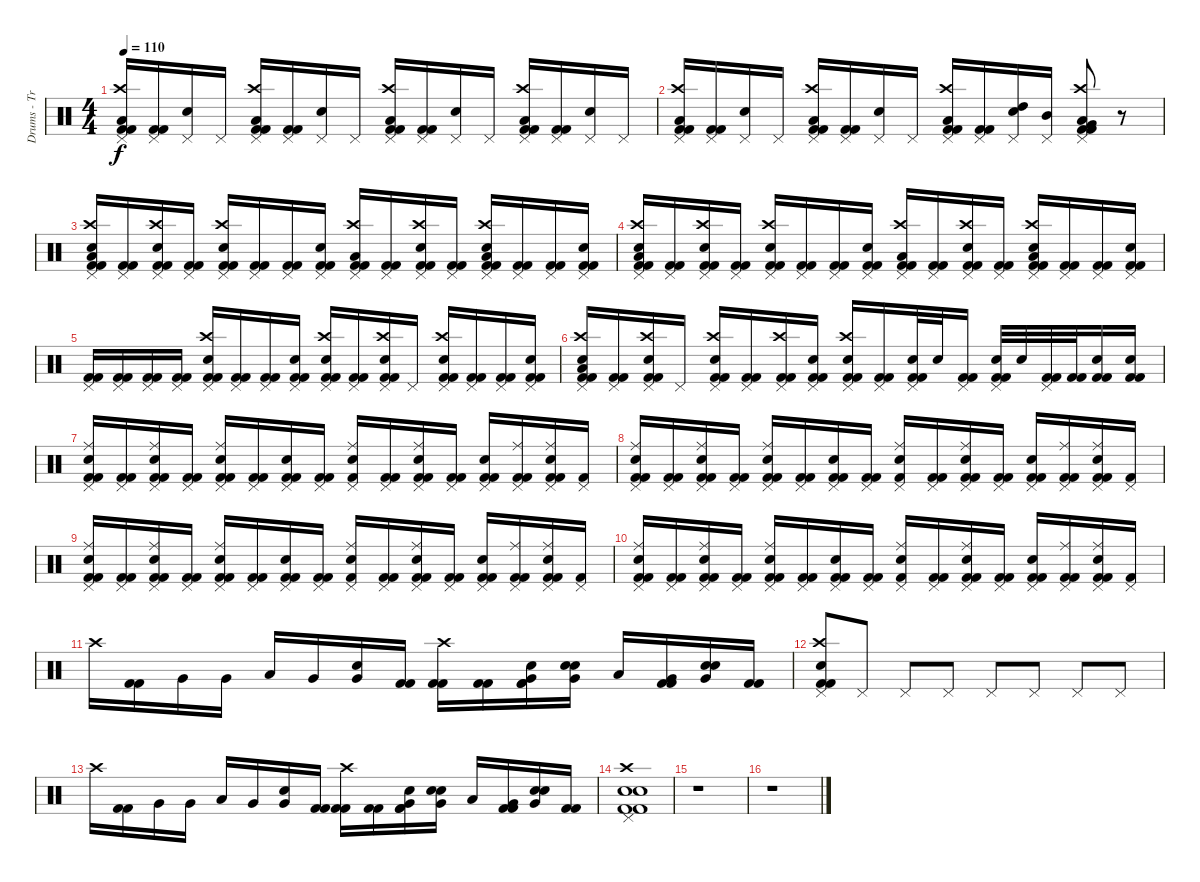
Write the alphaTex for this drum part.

\track ("Drums - Travis Barker" "Drums - Tr") {instrument percussion}
\staff {score}
\articulation defaults
\ts (4 4)
\tempo 110
\clef neutral
\ks c
("Pedal Hi-Hat (hit)" "Crash high (hit)" "Low Tom (hit)" "Kick (hit) 2" "Kick (hit) 2").16{dy f} ("Pedal Hi-Hat (hit)" "Kick (hit) 2" "Kick (hit) 2").16 ("Pedal Hi-Hat (hit)" "Electric Snare (hit)").16 "Pedal Hi-Hat (hit)".16 ("Pedal Hi-Hat (hit)" "Crash high (hit)" "Low Tom (hit)" "Kick (hit) 2" "Kick (hit) 2").16 ("Pedal Hi-Hat (hit)" "Kick (hit) 2" "Kick (hit) 2").16 ("Pedal Hi-Hat (hit)" "Electric Snare (hit)").16 "Pedal Hi-Hat (hit)".16 ("Pedal Hi-Hat (hit)" "Crash high (hit)" "Low Tom (hit)" "Kick (hit) 2" "Kick (hit) 2").16 ("Pedal Hi-Hat (hit)" "Kick (hit) 2" "Kick (hit) 2").16 ("Pedal Hi-Hat (hit)" "Electric Snare (hit)").16 "Pedal Hi-Hat (hit)".16 ("Pedal Hi-Hat (hit)" "Crash high (hit)" "Low Tom (hit)" "Kick (hit) 2" "Kick (hit) 2").16 ("Pedal Hi-Hat (hit)" "Kick (hit) 2" "Kick (hit) 2").16 ("Pedal Hi-Hat (hit)" "Electric Snare (hit)").16 "Pedal Hi-Hat (hit)".16 |
("Pedal Hi-Hat (hit)" "Crash high (hit)" "Low Tom (hit)" "Kick (hit) 2" "Kick (hit) 2").16 ("Pedal Hi-Hat (hit)" "Kick (hit) 2" "Kick (hit) 2").16 ("Pedal Hi-Hat (hit)" "Electric Snare (hit)").16 "Pedal Hi-Hat (hit)".16 ("Pedal Hi-Hat (hit)" "Crash high (hit)" "Low Tom (hit)" "Kick (hit) 2" "Kick (hit) 2").16 ("Pedal Hi-Hat (hit)" "Kick (hit) 2" "Kick (hit) 2").16 ("Pedal Hi-Hat (hit)" "Electric Snare (hit)").16 "Pedal Hi-Hat (hit)".16 ("Pedal Hi-Hat (hit)" "Crash high (hit)" "Low Tom (hit)" "Kick (hit) 2" "Kick (hit) 2").16 ("Pedal Hi-Hat (hit)" "Kick (hit) 2" "Kick (hit) 2").16 ("Pedal Hi-Hat (hit)" "Electric Snare (hit)" "High Tom (hit)").16 ("Pedal Hi-Hat (hit)" "Mid Tom (hit)").16 ("Pedal Hi-Hat (hit)" "Crash high (hit)" "Low Tom (hit)" "Kick (hit) 2" "Kick (hit) 2" "Very Low Tom (hit)").8 r.8 |
("Pedal Hi-Hat (hit)" "Crash high (hit)" "Low Tom (hit)" "Electric Snare (hit)" "Kick (hit) 2" "Kick (hit) 2").16 ("Pedal Hi-Hat (hit)" "Kick (hit) 2" "Kick (hit) 2").16 ("Pedal Hi-Hat (hit)" "Crash high (hit)" "Electric Snare (hit)" "Kick (hit) 2" "Kick (hit) 2").16 ("Pedal Hi-Hat (hit)" "Kick (hit) 2" "Kick (hit) 2").16 ("Pedal Hi-Hat (hit)" "Crash high (hit)" "Electric Snare (hit)" "Kick (hit) 2" "Kick (hit) 2").16 ("Pedal Hi-Hat (hit)" "Kick (hit) 2" "Kick (hit) 2").16 ("Pedal Hi-Hat (hit)" "Kick (hit) 2" "Kick (hit) 2").16 ("Pedal Hi-Hat (hit)" "Electric Snare (hit)" "Kick (hit) 2" "Kick (hit) 2").16 ("Pedal Hi-Hat (hit)" "Crash high (hit)" "Low Tom (hit)" "Kick (hit) 2" "Kick (hit) 2").16 ("Pedal Hi-Hat (hit)" "Kick (hit) 2" "Kick (hit) 2").16 ("Pedal Hi-Hat (hit)" "Crash high (hit)" "Electric Snare (hit)" "Kick (hit) 2" "Kick (hit) 2").16 ("Pedal Hi-Hat (hit)" "Kick (hit) 2" "Kick (hit) 2").16 ("Pedal Hi-Hat (hit)" "Crash high (hit)" "Low Tom (hit)" "Electric Snare (hit)" "Kick (hit) 2" "Kick (hit) 2").16 ("Pedal Hi-Hat (hit)" "Kick (hit) 2" "Kick (hit) 2").16 ("Pedal Hi-Hat (hit)" "Kick (hit) 2" "Kick (hit) 2").16 ("Pedal Hi-Hat (hit)" "Electric Snare (hit)" "Kick (hit) 2" "Kick (hit) 2").16 |
("Pedal Hi-Hat (hit)" "Crash high (hit)" "Low Tom (hit)" "Electric Snare (hit)" "Kick (hit) 2" "Kick (hit) 2").16 ("Pedal Hi-Hat (hit)" "Kick (hit) 2" "Kick (hit) 2").16 ("Pedal Hi-Hat (hit)" "Crash high (hit)" "Electric Snare (hit)" "Kick (hit) 2" "Kick (hit) 2").16 ("Pedal Hi-Hat (hit)" "Kick (hit) 2" "Kick (hit) 2").16 ("Pedal Hi-Hat (hit)" "Crash high (hit)" "Electric Snare (hit)" "Kick (hit) 2" "Kick (hit) 2").16 ("Pedal Hi-Hat (hit)" "Kick (hit) 2" "Kick (hit) 2").16 ("Pedal Hi-Hat (hit)" "Kick (hit) 2" "Kick (hit) 2").16 ("Pedal Hi-Hat (hit)" "Electric Snare (hit)" "Kick (hit) 2" "Kick (hit) 2").16 ("Pedal Hi-Hat (hit)" "Crash high (hit)" "Low Tom (hit)" "Kick (hit) 2" "Kick (hit) 2").16 ("Pedal Hi-Hat (hit)" "Kick (hit) 2" "Kick (hit) 2").16 ("Pedal Hi-Hat (hit)" "Crash high (hit)" "Electric Snare (hit)" "Kick (hit) 2" "Kick (hit) 2").16 ("Pedal Hi-Hat (hit)" "Kick (hit) 2" "Kick (hit) 2").16 ("Pedal Hi-Hat (hit)" "Crash high (hit)" "Low Tom (hit)" "Electric Snare (hit)" "Kick (hit) 2" "Kick (hit) 2").16 ("Pedal Hi-Hat (hit)" "Kick (hit) 2" "Kick (hit) 2").16 ("Pedal Hi-Hat (hit)" "Kick (hit) 2" "Kick (hit) 2").16 ("Pedal Hi-Hat (hit)" "Electric Snare (hit)" "Kick (hit) 2" "Kick (hit) 2").16 |
("Pedal Hi-Hat (hit)" "Kick (hit) 2" "Kick (hit) 2").16 ("Pedal Hi-Hat (hit)" "Kick (hit) 2" "Kick (hit) 2").16 ("Pedal Hi-Hat (hit)" "Kick (hit) 2" "Kick (hit) 2").16 ("Pedal Hi-Hat (hit)" "Kick (hit) 2" "Kick (hit) 2").16 ("Pedal Hi-Hat (hit)" "Crash high (hit)" "Electric Snare (hit)" "Kick (hit) 2" "Kick (hit) 2").16 ("Pedal Hi-Hat (hit)" "Kick (hit) 2" "Kick (hit) 2").16 ("Pedal Hi-Hat (hit)" "Kick (hit) 2" "Kick (hit) 2").16 ("Pedal Hi-Hat (hit)" "Electric Snare (hit)" "Kick (hit) 2" "Kick (hit) 2").16 ("Pedal Hi-Hat (hit)" "Crash high (hit)" "Electric Snare (hit)" "Kick (hit) 2" "Kick (hit) 2").16 ("Pedal Hi-Hat (hit)" "Kick (hit) 2" "Kick (hit) 2").16 ("Pedal Hi-Hat (hit)" "Crash high (hit)" "Electric Snare (hit)" "Kick (hit) 2" "Kick (hit) 2").16 "Pedal Hi-Hat (hit)".16 ("Pedal Hi-Hat (hit)" "Crash high (hit)" "Electric Snare (hit)" "Kick (hit) 2" "Kick (hit) 2").16 ("Pedal Hi-Hat (hit)" "Kick (hit) 2" "Kick (hit) 2").16 ("Pedal Hi-Hat (hit)" "Kick (hit) 2" "Kick (hit) 2").16 ("Pedal Hi-Hat (hit)" "Electric Snare (hit)" "Kick (hit) 2" "Kick (hit) 2").16 |
("Pedal Hi-Hat (hit)" "Crash high (hit)" "Low Tom (hit)" "Electric Snare (hit)" "Kick (hit) 2" "Kick (hit) 2").16 ("Pedal Hi-Hat (hit)" "Kick (hit) 2" "Kick (hit) 2").16 ("Pedal Hi-Hat (hit)" "Crash high (hit)" "Electric Snare (hit)" "Kick (hit) 2" "Kick (hit) 2").16 "Pedal Hi-Hat (hit)".16 ("Pedal Hi-Hat (hit)" "Crash high (hit)" "Electric Snare (hit)" "Kick (hit) 2" "Kick (hit) 2").16 ("Pedal Hi-Hat (hit)" "Kick (hit) 2" "Kick (hit) 2").16 ("Pedal Hi-Hat (hit)" "Crash high (hit)" "Kick (hit) 2" "Kick (hit) 2").16 ("Pedal Hi-Hat (hit)" "Electric Snare (hit)" "Kick (hit) 2" "Kick (hit) 2").16 ("Pedal Hi-Hat (hit)" "Crash high (hit)" "Electric Snare (hit)" "Kick (hit) 2" "Kick (hit) 2").16 ("Pedal Hi-Hat (hit)" "Kick (hit) 2" "Kick (hit) 2").16 ("Pedal Hi-Hat (hit)" "Electric Snare (hit)" "Kick (hit) 2" "Kick (hit) 2").32 "Electric Snare (hit)".32 ("Pedal Hi-Hat (hit)" "Kick (hit) 2" "Kick (hit) 2").16 ("Pedal Hi-Hat (hit)" "Electric Snare (hit)" "Kick (hit) 2" "Kick (hit) 2").32 "Electric Snare (hit)".32 ("Pedal Hi-Hat (hit)" "Kick (hit) 2" "Kick (hit) 2").32 ("Kick (hit) 2" "Kick (hit) 2").32 ("Electric Snare (hit)" "Kick (hit) 2" "Kick (hit) 2").16 ("Electric Snare (hit)" "Kick (hit) 2" "Kick (hit) 2").16 |
("Pedal Hi-Hat (hit)" "Ride (middle)" "Electric Snare (hit)" "Kick (hit) 2" "Kick (hit) 2").16 ("Pedal Hi-Hat (hit)" "Kick (hit) 2" "Kick (hit) 2").16 ("Pedal Hi-Hat (hit)" "Ride (middle)" "Electric Snare (hit)" "Kick (hit) 2" "Kick (hit) 2").16 ("Pedal Hi-Hat (hit)" "Kick (hit) 2" "Kick (hit) 2").16 ("Pedal Hi-Hat (hit)" "Ride (middle)" "Electric Snare (hit)" "Kick (hit) 2" "Kick (hit) 2").16 ("Pedal Hi-Hat (hit)" "Kick (hit) 2" "Kick (hit) 2").16 ("Pedal Hi-Hat (hit)" "Electric Snare (hit)" "Kick (hit) 2" "Kick (hit) 2").16 ("Pedal Hi-Hat (hit)" "Kick (hit) 2" "Kick (hit) 2").16 ("Pedal Hi-Hat (hit)" "Ride (middle)" "Electric Snare (hit)" "Kick (hit) 2").16 ("Pedal Hi-Hat (hit)" "Kick (hit) 2" "Kick (hit) 2").16 ("Pedal Hi-Hat (hit)" "Ride (middle)" "Electric Snare (hit)" "Kick (hit) 2" "Kick (hit) 2").16 ("Pedal Hi-Hat (hit)" "Kick (hit) 2" "Kick (hit) 2").16 ("Pedal Hi-Hat (hit)" "Electric Snare (hit)" "Kick (hit) 2" "Kick (hit) 2").16 ("Pedal Hi-Hat (hit)" "Ride (middle)" "Kick (hit) 2" "Kick (hit) 2").16 ("Pedal Hi-Hat (hit)" "Ride (middle)" "Electric Snare (hit)" "Kick (hit) 2" "Kick (hit) 2").16 ("Pedal Hi-Hat (hit)" "Kick (hit) 2").16 |
("Pedal Hi-Hat (hit)" "Ride (middle)" "Electric Snare (hit)" "Kick (hit) 2" "Kick (hit) 2").16 ("Pedal Hi-Hat (hit)" "Kick (hit) 2" "Kick (hit) 2").16 ("Pedal Hi-Hat (hit)" "Ride (middle)" "Electric Snare (hit)" "Kick (hit) 2" "Kick (hit) 2").16 ("Pedal Hi-Hat (hit)" "Kick (hit) 2" "Kick (hit) 2").16 ("Pedal Hi-Hat (hit)" "Ride (middle)" "Electric Snare (hit)" "Kick (hit) 2" "Kick (hit) 2").16 ("Pedal Hi-Hat (hit)" "Kick (hit) 2" "Kick (hit) 2").16 ("Pedal Hi-Hat (hit)" "Electric Snare (hit)" "Kick (hit) 2" "Kick (hit) 2").16 ("Pedal Hi-Hat (hit)" "Kick (hit) 2" "Kick (hit) 2").16 ("Pedal Hi-Hat (hit)" "Ride (middle)" "Electric Snare (hit)" "Kick (hit) 2").16 ("Pedal Hi-Hat (hit)" "Kick (hit) 2" "Kick (hit) 2").16 ("Pedal Hi-Hat (hit)" "Ride (middle)" "Electric Snare (hit)" "Kick (hit) 2" "Kick (hit) 2").16 ("Pedal Hi-Hat (hit)" "Kick (hit) 2" "Kick (hit) 2").16 ("Pedal Hi-Hat (hit)" "Electric Snare (hit)" "Kick (hit) 2" "Kick (hit) 2").16 ("Pedal Hi-Hat (hit)" "Ride (middle)" "Kick (hit) 2" "Kick (hit) 2").16 ("Pedal Hi-Hat (hit)" "Ride (middle)" "Electric Snare (hit)" "Kick (hit) 2" "Kick (hit) 2").16 ("Pedal Hi-Hat (hit)" "Kick (hit) 2").16 |
("Pedal Hi-Hat (hit)" "Ride (middle)" "Electric Snare (hit)" "Kick (hit) 2" "Kick (hit) 2").16 ("Pedal Hi-Hat (hit)" "Kick (hit) 2" "Kick (hit) 2").16 ("Pedal Hi-Hat (hit)" "Ride (middle)" "Electric Snare (hit)" "Kick (hit) 2" "Kick (hit) 2").16 ("Pedal Hi-Hat (hit)" "Kick (hit) 2" "Kick (hit) 2").16 ("Pedal Hi-Hat (hit)" "Ride (middle)" "Electric Snare (hit)" "Kick (hit) 2" "Kick (hit) 2").16 ("Pedal Hi-Hat (hit)" "Kick (hit) 2" "Kick (hit) 2").16 ("Pedal Hi-Hat (hit)" "Electric Snare (hit)" "Kick (hit) 2" "Kick (hit) 2").16 ("Pedal Hi-Hat (hit)" "Kick (hit) 2" "Kick (hit) 2").16 ("Pedal Hi-Hat (hit)" "Ride (middle)" "Electric Snare (hit)" "Kick (hit) 2").16 ("Pedal Hi-Hat (hit)" "Kick (hit) 2" "Kick (hit) 2").16 ("Pedal Hi-Hat (hit)" "Ride (middle)" "Electric Snare (hit)" "Kick (hit) 2" "Kick (hit) 2").16 ("Pedal Hi-Hat (hit)" "Kick (hit) 2" "Kick (hit) 2").16 ("Pedal Hi-Hat (hit)" "Electric Snare (hit)" "Kick (hit) 2" "Kick (hit) 2").16 ("Pedal Hi-Hat (hit)" "Ride (middle)" "Kick (hit) 2" "Kick (hit) 2").16 ("Pedal Hi-Hat (hit)" "Ride (middle)" "Electric Snare (hit)" "Kick (hit) 2" "Kick (hit) 2").16 ("Pedal Hi-Hat (hit)" "Kick (hit) 2").16 |
("Pedal Hi-Hat (hit)" "Ride (middle)" "Electric Snare (hit)" "Kick (hit) 2" "Kick (hit) 2").16 ("Pedal Hi-Hat (hit)" "Kick (hit) 2" "Kick (hit) 2").16 ("Pedal Hi-Hat (hit)" "Ride (middle)" "Electric Snare (hit)" "Kick (hit) 2" "Kick (hit) 2").16 ("Pedal Hi-Hat (hit)" "Kick (hit) 2" "Kick (hit) 2").16 ("Pedal Hi-Hat (hit)" "Ride (middle)" "Electric Snare (hit)" "Kick (hit) 2" "Kick (hit) 2").16 ("Pedal Hi-Hat (hit)" "Kick (hit) 2" "Kick (hit) 2").16 ("Pedal Hi-Hat (hit)" "Electric Snare (hit)" "Kick (hit) 2" "Kick (hit) 2").16 ("Pedal Hi-Hat (hit)" "Kick (hit) 2" "Kick (hit) 2").16 ("Pedal Hi-Hat (hit)" "Ride (middle)" "Electric Snare (hit)" "Kick (hit) 2").16 ("Pedal Hi-Hat (hit)" "Kick (hit) 2" "Kick (hit) 2").16 ("Pedal Hi-Hat (hit)" "Ride (middle)" "Electric Snare (hit)" "Kick (hit) 2" "Kick (hit) 2").16 ("Pedal Hi-Hat (hit)" "Kick (hit) 2" "Kick (hit) 2").16 ("Pedal Hi-Hat (hit)" "Electric Snare (hit)" "Kick (hit) 2" "Kick (hit) 2").16 ("Pedal Hi-Hat (hit)" "Ride (middle)" "Kick (hit) 2" "Kick (hit) 2").16 ("Pedal Hi-Hat (hit)" "Ride (middle)" "Electric Snare (hit)" "Kick (hit) 2" "Kick (hit) 2").16 ("Pedal Hi-Hat (hit)" "Kick (hit) 2").16 |
"Crash high (hit)".16 ("Kick (hit) 2" "Kick (hit) 2").16 "Very Low Tom (hit)".16 "Very Low Tom (hit)".16 "Low Tom (hit)".16 "Very Low Tom (hit)".16 ("Very Low Tom (hit)" "Electric Snare (hit)").16 ("Kick (hit) 2" "Kick (hit) 2").16 ("Crash high (hit)" "Kick (hit) 2" "Kick (hit) 2").16 ("Kick (hit) 2" "Kick (hit) 2").16 ("Very Low Tom (hit)" "Electric Snare (hit)" "Kick (hit) 2" "Kick (hit) 2").16 ("Very Low Tom (hit)" "Electric Snare (hit)" "Electric Snare (hit)").16 "Low Tom (hit)".16 ("Very Low Tom (hit)" "Kick (hit) 2" "Kick (hit) 2").16 ("Very Low Tom (hit)" "Electric Snare (hit)" "Electric Snare (hit)").16 ("Kick (hit) 2" "Kick (hit) 2").16 |
("Pedal Hi-Hat (hit)" "Crash high (hit)" "Electric Snare (hit)" "Kick (hit) 2" "Kick (hit) 2").8 "Pedal Hi-Hat (hit)".8 "Pedal Hi-Hat (hit)".8 "Pedal Hi-Hat (hit)".8 "Pedal Hi-Hat (hit)".8 "Pedal Hi-Hat (hit)".8 "Pedal Hi-Hat (hit)".8 "Pedal Hi-Hat (hit)".8 |
"Crash high (hit)".16 ("Kick (hit) 2" "Kick (hit) 2").16 "Very Low Tom (hit)".16 "Very Low Tom (hit)".16 "Low Tom (hit)".16 "Very Low Tom (hit)".16 ("Very Low Tom (hit)" "Electric Snare (hit)").16 ("Kick (hit) 2" "Kick (hit) 2").16 ("Crash high (hit)" "Kick (hit) 2" "Kick (hit) 2").16 ("Kick (hit) 2" "Kick (hit) 2").16 ("Very Low Tom (hit)" "Electric Snare (hit)" "Kick (hit) 2" "Kick (hit) 2").16 ("Very Low Tom (hit)" "Electric Snare (hit)" "Electric Snare (hit)").16 "Low Tom (hit)".16 ("Very Low Tom (hit)" "Kick (hit) 2" "Kick (hit) 2").16 ("Very Low Tom (hit)" "Electric Snare (hit)" "Electric Snare (hit)").16 ("Kick (hit) 2" "Kick (hit) 2").16 |
("Pedal Hi-Hat (hit)" "Crash high (hit)" "Electric Snare (hit)" "Electric Snare (hit)" "Kick (hit) 2" "Kick (hit) 2").1 |
r.1 |
r.1
